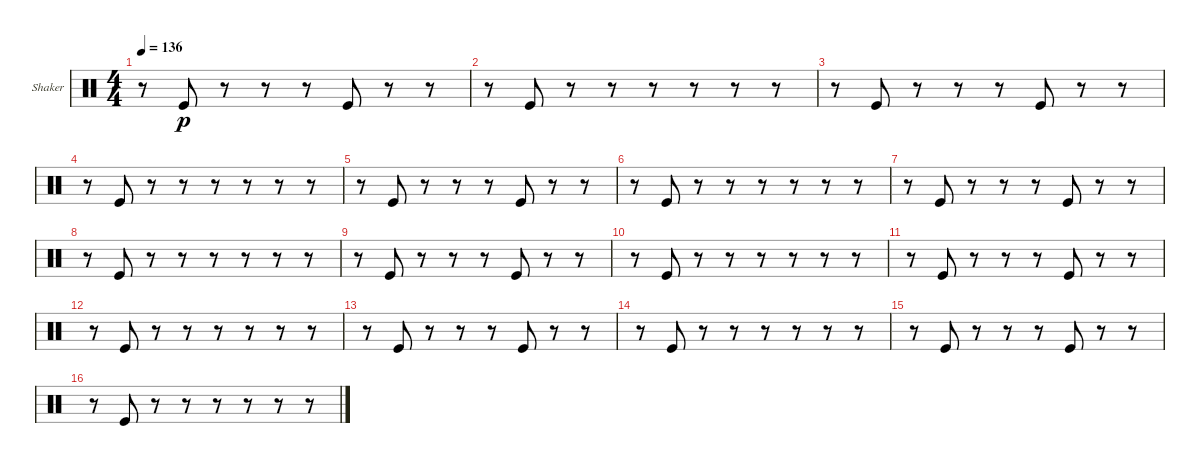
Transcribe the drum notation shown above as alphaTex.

\bracketExtendMode groupsimilarinstruments
\firstSystemTrackNameOrientation horizontal
\otherSystemsTrackNameOrientation horizontal
\track ("Shaker" "Shaker") {instrument percussion}
\staff {score}
\articulation defaults
\ts (4 4)
\tempo 136
\clef neutral
\ks c
r.8{dy p} "Kick (hit)".8 r.8 r.8 r.8 "Kick (hit)".8 r.8 r.8 |
r.8 "Kick (hit)".8 r.8 r.8 r.8 r.8 r.8 r.8 |
r.8 "Kick (hit)".8 r.8 r.8 r.8 "Kick (hit)".8 r.8 r.8 |
r.8 "Kick (hit)".8 r.8 r.8 r.8 r.8 r.8 r.8 |
r.8 "Kick (hit)".8 r.8 r.8 r.8 "Kick (hit)".8 r.8 r.8 |
r.8 "Kick (hit)".8 r.8 r.8 r.8 r.8 r.8 r.8 |
r.8 "Kick (hit)".8 r.8 r.8 r.8 "Kick (hit)".8 r.8 r.8 |
r.8 "Kick (hit)".8 r.8 r.8 r.8 r.8 r.8 r.8 |
r.8 "Kick (hit)".8 r.8 r.8 r.8 "Kick (hit)".8 r.8 r.8 |
r.8 "Kick (hit)".8 r.8 r.8 r.8 r.8 r.8 r.8 |
r.8 "Kick (hit)".8 r.8 r.8 r.8 "Kick (hit)".8 r.8 r.8 |
r.8 "Kick (hit)".8 r.8 r.8 r.8 r.8 r.8 r.8 |
r.8 "Kick (hit)".8 r.8 r.8 r.8 "Kick (hit)".8 r.8 r.8 |
r.8 "Kick (hit)".8 r.8 r.8 r.8 r.8 r.8 r.8 |
r.8 "Kick (hit)".8 r.8 r.8 r.8 "Kick (hit)".8 r.8 r.8 |
r.8 "Kick (hit)".8 r.8 r.8 r.8 r.8 r.8 r.8
